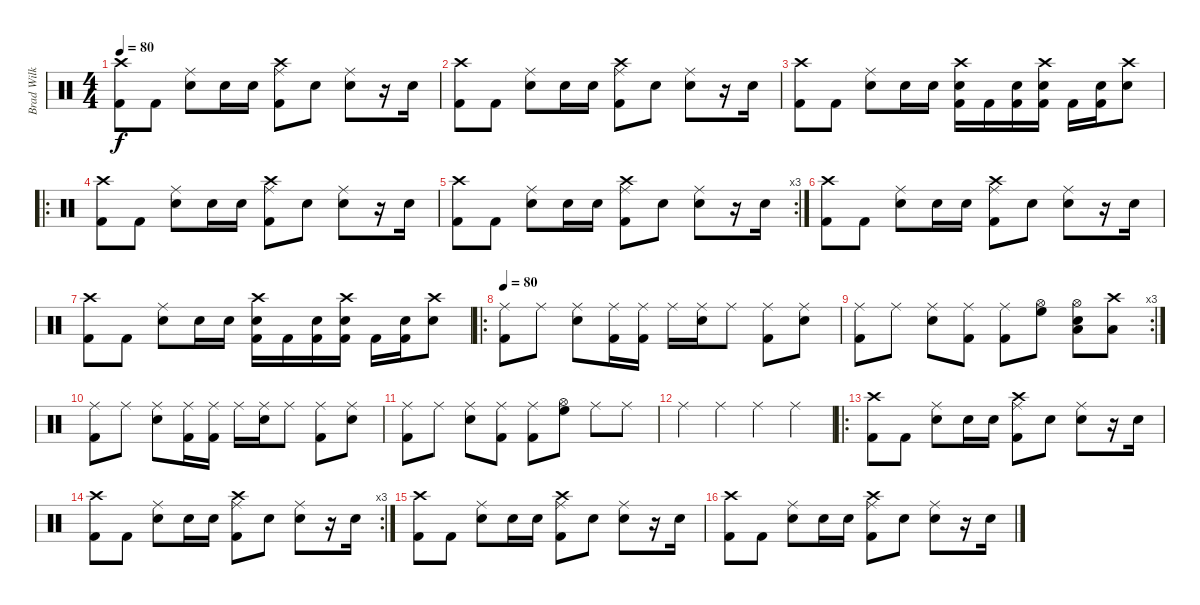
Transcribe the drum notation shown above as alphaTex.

\track ("Brad Wilk" "Brad Wilk") {instrument percussion}
\staff {score}
\articulation defaults
\ts (4 4)
\tempo 80
\clef neutral
\ks c
("Crash high (hit)" "Kick (hit) 2").8{dy f} "Kick (hit) 2".8 ("Ride (middle)" "Snare (hit) 2").8 "Snare (hit) 2".16 "Snare (hit) 2".16 ("Ride (middle)" "Crash high (hit)" "Kick (hit) 2").8 "Snare (hit) 2".8 ("Ride (middle)" "Snare (hit) 2").8 r.16 "Snare (hit) 2".16 |
("Crash high (hit)" "Kick (hit) 2").8 "Kick (hit) 2".8 ("Ride (middle)" "Snare (hit) 2").8 "Snare (hit) 2".16 "Snare (hit) 2".16 ("Ride (middle)" "Crash high (hit)" "Kick (hit) 2").8 "Snare (hit) 2".8 ("Ride (middle)" "Snare (hit) 2").8 r.16 "Snare (hit) 2".16 |
("Crash high (hit)" "Kick (hit) 2").8 "Kick (hit) 2".8 ("Ride (middle)" "Snare (hit) 2").8 "Snare (hit) 2".16 "Snare (hit) 2".16 ("Crash high (hit)" "Snare (hit) 2" "Kick (hit) 2").16 "Kick (hit) 2".16 ("Snare (hit) 2" "Kick (hit) 2").16 ("Crash high (hit)" "Snare (hit) 2" "Kick (hit) 2").16 "Kick (hit) 2".16 ("Snare (hit) 2" "Kick (hit) 2").16 ("Crash high (hit)" "Snare (hit) 2").8 |
\ro
("Crash high (hit)" "Kick (hit) 2").8 "Kick (hit) 2".8 ("Ride (middle)" "Snare (hit) 2").8 "Snare (hit) 2".16 "Snare (hit) 2".16 ("Ride (middle)" "Crash high (hit)" "Kick (hit) 2").8 "Snare (hit) 2".8 ("Ride (middle)" "Snare (hit) 2").8 r.16 "Snare (hit) 2".16 |
\rc 3
("Crash high (hit)" "Kick (hit) 2").8 "Kick (hit) 2".8 ("Ride (middle)" "Snare (hit) 2").8 "Snare (hit) 2".16 "Snare (hit) 2".16 ("Ride (middle)" "Crash high (hit)" "Kick (hit) 2").8 "Snare (hit) 2".8 ("Ride (middle)" "Snare (hit) 2").8 r.16 "Snare (hit) 2".16 |
("Crash high (hit)" "Kick (hit) 2").8 "Kick (hit) 2".8 ("Ride (middle)" "Snare (hit) 2").8 "Snare (hit) 2".16 "Snare (hit) 2".16 ("Ride (middle)" "Crash high (hit)" "Kick (hit) 2").8 "Snare (hit) 2".8 ("Ride (middle)" "Snare (hit) 2").8 r.16 "Snare (hit) 2".16 |
("Crash high (hit)" "Kick (hit) 2").8 "Kick (hit) 2".8 ("Ride (middle)" "Snare (hit) 2").8 "Snare (hit) 2".16 "Snare (hit) 2".16 ("Crash high (hit)" "Snare (hit) 2" "Kick (hit) 2").16 "Kick (hit) 2".16 ("Snare (hit) 2" "Kick (hit) 2").16 ("Crash high (hit)" "Snare (hit) 2" "Kick (hit) 2").16 "Kick (hit) 2".16 ("Snare (hit) 2" "Kick (hit) 2").16 ("Crash high (hit)" "Snare (hit) 2").8 |
\ro
\tempo 80
("Ride (middle)" "Kick (hit) 2").8 "Ride (middle)".8 ("Ride (middle)" "Snare (hit) 2").8 ("Ride (middle)" "Kick (hit) 2").16 ("Ride (middle)" "Kick (hit) 2").16 "Ride (middle)".16 ("Ride (middle)" "Snare (hit) 2").16 "Ride (middle)".8 ("Ride (middle)" "Kick (hit) 2").8 ("Ride (middle)" "Snare (hit) 2").8 |
\rc 3
("Ride (middle)" "Kick (hit) 2").8 "Ride (middle)".8 ("Ride (middle)" "Snare (hit) 2").8 ("Ride (middle)" "Kick (hit) 2").8 ("Ride (middle)" "Kick (hit) 2").8 ("Hi-Hat (open)" "High Floor Tom (hit)").8 ("Hi-Hat (open)" "Snare (hit) 2" "Low Tom (hit)").8 ("Crash high (hit)" "Low Floor Tom (hit)").8 |
("Ride (middle)" "Kick (hit) 2").8 "Ride (middle)".8 ("Ride (middle)" "Snare (hit) 2").8 ("Ride (middle)" "Kick (hit) 2").16 ("Ride (middle)" "Kick (hit) 2").16 "Ride (middle)".16 ("Ride (middle)" "Snare (hit) 2").16 "Ride (middle)".8 ("Ride (middle)" "Kick (hit) 2").8 ("Ride (middle)" "Snare (hit) 2").8 |
("Ride (middle)" "Kick (hit) 2").8 "Ride (middle)".8 ("Ride (middle)" "Snare (hit) 2").8 ("Ride (middle)" "Kick (hit) 2").8 ("Ride (middle)" "Kick (hit) 2").8 ("Hi-Hat (open)" "High Floor Tom (hit)").8 "Ride (middle)".8 "Ride (middle)".8 |
"Ride (middle)".4 "Ride (middle)".4 "Ride (middle)".4 "Ride (middle)".4 |
\ro
("Crash high (hit)" "Kick (hit) 2").8 "Kick (hit) 2".8 ("Ride (middle)" "Snare (hit) 2").8 "Snare (hit) 2".16 "Snare (hit) 2".16 ("Ride (middle)" "Crash high (hit)" "Kick (hit) 2").8 "Snare (hit) 2".8 ("Ride (middle)" "Snare (hit) 2").8 r.16 "Snare (hit) 2".16 |
\rc 3
("Crash high (hit)" "Kick (hit) 2").8 "Kick (hit) 2".8 ("Ride (middle)" "Snare (hit) 2").8 "Snare (hit) 2".16 "Snare (hit) 2".16 ("Ride (middle)" "Crash high (hit)" "Kick (hit) 2").8 "Snare (hit) 2".8 ("Ride (middle)" "Snare (hit) 2").8 r.16 "Snare (hit) 2".16 |
("Crash high (hit)" "Kick (hit) 2").8 "Kick (hit) 2".8 ("Ride (middle)" "Snare (hit) 2").8 "Snare (hit) 2".16 "Snare (hit) 2".16 ("Ride (middle)" "Crash high (hit)" "Kick (hit) 2").8 "Snare (hit) 2".8 ("Ride (middle)" "Snare (hit) 2").8 r.16 "Snare (hit) 2".16 |
("Crash high (hit)" "Kick (hit) 2").8 "Kick (hit) 2".8 ("Ride (middle)" "Snare (hit) 2").8 "Snare (hit) 2".16 "Snare (hit) 2".16 ("Ride (middle)" "Crash high (hit)" "Kick (hit) 2").8 "Snare (hit) 2".8 ("Ride (middle)" "Snare (hit) 2").8 r.16 "Snare (hit) 2".16
